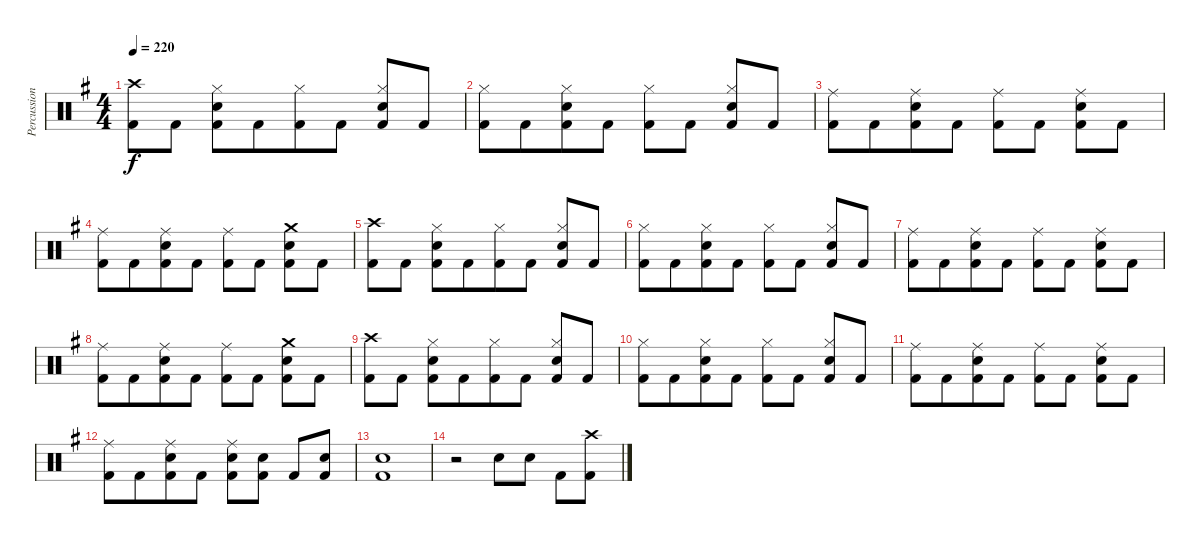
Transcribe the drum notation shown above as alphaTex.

\track ("Percussion" "Percussion") {instrument percussion}
\staff {score}
\articulation defaults
\ts (4 4)
\tempo 220
\clef neutral
\ks eminor
("Crash high (hit)" "Kick (hit) 2").8{dy f beam merge} "Kick (hit) 2".8 ("Hi-Hat (closed)" "Snare (hit) 2" "Kick (hit) 2").8{beam merge} "Kick (hit) 2".8{beam merge} ("Hi-Hat (closed)" "Kick (hit) 2").8 "Kick (hit) 2".8 ("Hi-Hat (closed)" "Snare (hit) 2" "Kick (hit) 2").8{beam merge} "Kick (hit) 2".8 |
("Hi-Hat (closed)" "Kick (hit) 2").8 "Kick (hit) 2".8{beam merge} ("Hi-Hat (closed)" "Snare (hit) 2" "Kick (hit) 2").8{beam merge} "Kick (hit) 2".8 ("Hi-Hat (closed)" "Kick (hit) 2").8{beam merge} "Kick (hit) 2".8 ("Hi-Hat (closed)" "Snare (hit) 2" "Kick (hit) 2").8 "Kick (hit) 2".8 |
("Ride (middle)" "Kick (hit) 2").8 "Kick (hit) 2".8{beam merge} ("Ride (middle)" "Snare (hit) 2" "Kick (hit) 2").8{beam merge} "Kick (hit) 2".8 ("Ride (middle)" "Kick (hit) 2").8{beam merge} "Kick (hit) 2".8 ("Ride (middle)" "Snare (hit) 2" "Kick (hit) 2").8 "Kick (hit) 2".8 |
("Ride (middle)" "Kick (hit) 2").8 "Kick (hit) 2".8{beam merge} ("Ride (middle)" "Snare (hit) 2" "Kick (hit) 2").8{beam merge} "Kick (hit) 2".8 ("Ride (middle)" "Kick (hit) 2").8{beam merge} "Kick (hit) 2".8 ("Crash medium (hit)" "Snare (hit) 2" "Kick (hit) 2").8 "Kick (hit) 2".8 |
("Crash high (hit)" "Kick (hit) 2").8{beam merge} "Kick (hit) 2".8 ("Hi-Hat (closed)" "Snare (hit) 2" "Kick (hit) 2").8{beam merge} "Kick (hit) 2".8{beam merge} ("Hi-Hat (closed)" "Kick (hit) 2").8 "Kick (hit) 2".8 ("Hi-Hat (closed)" "Snare (hit) 2" "Kick (hit) 2").8{beam merge} "Kick (hit) 2".8 |
("Hi-Hat (closed)" "Kick (hit) 2").8 "Kick (hit) 2".8{beam merge} ("Hi-Hat (closed)" "Snare (hit) 2" "Kick (hit) 2").8{beam merge} "Kick (hit) 2".8 ("Hi-Hat (closed)" "Kick (hit) 2").8{beam merge} "Kick (hit) 2".8 ("Hi-Hat (closed)" "Snare (hit) 2" "Kick (hit) 2").8 "Kick (hit) 2".8 |
("Ride (middle)" "Kick (hit) 2").8 "Kick (hit) 2".8{beam merge} ("Ride (middle)" "Snare (hit) 2" "Kick (hit) 2").8{beam merge} "Kick (hit) 2".8 ("Ride (middle)" "Kick (hit) 2").8{beam merge} "Kick (hit) 2".8 ("Ride (middle)" "Snare (hit) 2" "Kick (hit) 2").8 "Kick (hit) 2".8 |
("Ride (middle)" "Kick (hit) 2").8 "Kick (hit) 2".8{beam merge} ("Ride (middle)" "Snare (hit) 2" "Kick (hit) 2").8{beam merge} "Kick (hit) 2".8 ("Ride (middle)" "Kick (hit) 2").8{beam merge} "Kick (hit) 2".8 ("Crash medium (hit)" "Snare (hit) 2" "Kick (hit) 2").8 "Kick (hit) 2".8 |
("Crash high (hit)" "Kick (hit) 2").8{beam merge} "Kick (hit) 2".8 ("Hi-Hat (closed)" "Snare (hit) 2" "Kick (hit) 2").8{beam merge} "Kick (hit) 2".8{beam merge} ("Hi-Hat (closed)" "Kick (hit) 2").8 "Kick (hit) 2".8 ("Hi-Hat (closed)" "Snare (hit) 2" "Kick (hit) 2").8{beam merge} "Kick (hit) 2".8 |
("Hi-Hat (closed)" "Kick (hit) 2").8 "Kick (hit) 2".8{beam merge} ("Hi-Hat (closed)" "Snare (hit) 2" "Kick (hit) 2").8{beam merge} "Kick (hit) 2".8 ("Hi-Hat (closed)" "Kick (hit) 2").8{beam merge} "Kick (hit) 2".8 ("Hi-Hat (closed)" "Snare (hit) 2" "Kick (hit) 2").8 "Kick (hit) 2".8 |
("Ride (middle)" "Kick (hit) 2").8 "Kick (hit) 2".8{beam merge} ("Ride (middle)" "Snare (hit) 2" "Kick (hit) 2").8{beam merge} "Kick (hit) 2".8 ("Ride (middle)" "Kick (hit) 2").8{beam merge} "Kick (hit) 2".8 ("Ride (middle)" "Snare (hit) 2" "Kick (hit) 2").8 "Kick (hit) 2".8 |
("Ride (middle)" "Kick (hit) 2").8 "Kick (hit) 2".8{beam merge} ("Ride (middle)" "Snare (hit) 2" "Kick (hit) 2").8{beam merge} "Kick (hit) 2".8 ("Ride (middle)" "Snare (hit) 2" "Kick (hit) 2").8{beam merge} ("Snare (hit) 2" "Kick (hit) 2").8 "Kick (hit) 2".8 ("Snare (hit) 2" "Kick (hit) 2").8 |
("Snare (hit) 2" "Kick (hit) 2").1 |
r.2 "Snare (hit) 2".8 "Snare (hit) 2".8 "Kick (hit) 2".8{beam merge} ("Crash high (hit)" "Kick (hit) 2").8
